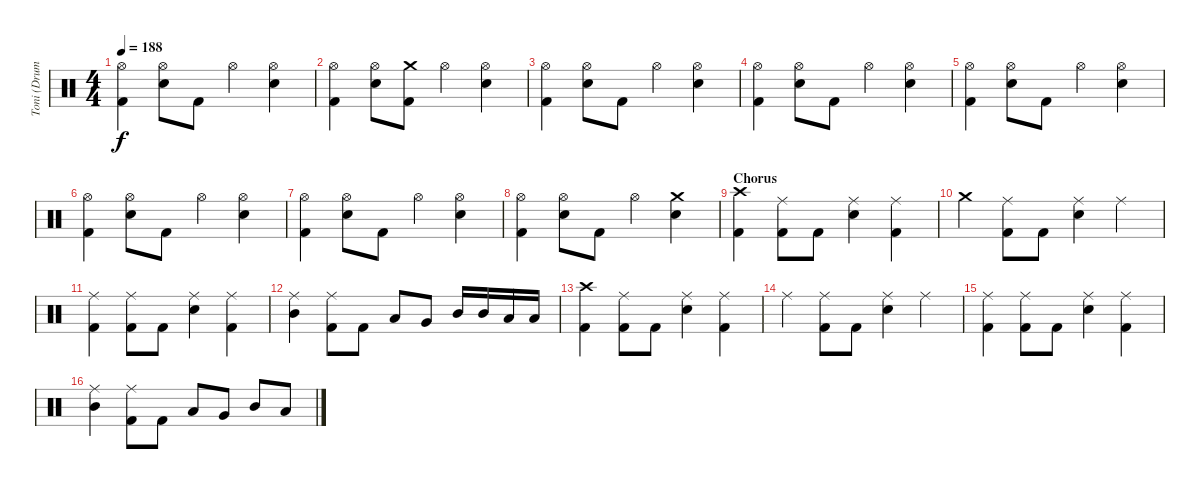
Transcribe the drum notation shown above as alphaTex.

\track ("Toni (Drums)" "Toni (Drum") {instrument percussion}
\staff {score}
\articulation defaults
\ts (4 4)
\tempo 188
\clef neutral
\ks c
("Hi-Hat (open)" "Kick (hit) 2").4{dy f} ("Hi-Hat (open)" "Electric Snare (hit)").8 "Kick (hit) 2".8 "Hi-Hat (open)".4 ("Hi-Hat (open)" "Electric Snare (hit)").4 |
("Hi-Hat (open)" "Kick (hit) 2").4 ("Hi-Hat (open)" "Electric Snare (hit)").8 ("Crash medium (hit)" "Kick (hit) 2").8 "Hi-Hat (open)".4 ("Hi-Hat (open)" "Electric Snare (hit)").4 |
("Hi-Hat (open)" "Kick (hit) 2").4 ("Hi-Hat (open)" "Electric Snare (hit)").8 "Kick (hit) 2".8 "Hi-Hat (open)".4 ("Hi-Hat (open)" "Electric Snare (hit)").4 |
("Hi-Hat (open)" "Kick (hit) 2").4 ("Hi-Hat (open)" "Electric Snare (hit)").8 "Kick (hit) 2".8 "Hi-Hat (open)".4 ("Hi-Hat (open)" "Electric Snare (hit)").4 |
("Hi-Hat (open)" "Kick (hit) 2").4 ("Hi-Hat (open)" "Electric Snare (hit)").8 "Kick (hit) 2".8 "Hi-Hat (open)".4 ("Hi-Hat (open)" "Electric Snare (hit)").4 |
("Hi-Hat (open)" "Kick (hit) 2").4 ("Hi-Hat (open)" "Electric Snare (hit)").8 "Kick (hit) 2".8 "Hi-Hat (open)".4 ("Hi-Hat (open)" "Electric Snare (hit)").4 |
("Hi-Hat (open)" "Kick (hit) 2").4 ("Hi-Hat (open)" "Electric Snare (hit)").8 "Kick (hit) 2".8 "Hi-Hat (open)".4 ("Hi-Hat (open)" "Electric Snare (hit)").4 |
("Hi-Hat (open)" "Kick (hit) 2").4 ("Hi-Hat (open)" "Electric Snare (hit)").8 "Kick (hit) 2".8 "Hi-Hat (open)".4 ("Crash medium (hit)" "Electric Snare (hit)").4 |
\section ("" "Chorus")
("Crash high (hit)" "Kick (hit) 2").4 ("Ride (middle)" "Kick (hit) 2").8 "Kick (hit) 2".8 ("Ride (middle)" "Electric Snare (hit)").4 ("Ride (middle)" "Kick (hit) 2").4 |
"Crash medium (hit)".4 ("Ride (middle)" "Kick (hit) 2").8 "Kick (hit) 2".8 ("Ride (middle)" "Electric Snare (hit)").4 "Ride (middle)".4 |
("Ride (middle)" "Kick (hit) 2").4 ("Ride (middle)" "Kick (hit) 2").8 "Kick (hit) 2".8 ("Ride (middle)" "Electric Snare (hit)").4 ("Ride (middle)" "Kick (hit) 2").4 |
("Ride (middle)" "Mid Tom (hit)").4 ("Ride (middle)" "Kick (hit) 2").8 "Kick (hit) 2".8 "Low Tom (hit)".8 "Very Low Tom (hit)".8 "Mid Tom (hit)".16 "Mid Tom (hit)".16 "Low Tom (hit)".16 "Low Tom (hit)".16 |
("Crash high (hit)" "Kick (hit) 2").4 ("Ride (middle)" "Kick (hit) 2").8 "Kick (hit) 2".8 ("Ride (middle)" "Electric Snare (hit)").4 ("Ride (middle)" "Kick (hit) 2").4 |
"Ride (middle)".4 ("Ride (middle)" "Kick (hit) 2").8 "Kick (hit) 2".8 ("Ride (middle)" "Electric Snare (hit)").4 "Ride (middle)".4 |
("Ride (middle)" "Kick (hit) 2").4 ("Ride (middle)" "Kick (hit) 2").8 "Kick (hit) 2".8 ("Ride (middle)" "Electric Snare (hit)").4 ("Ride (middle)" "Kick (hit) 2").4 |
("Ride (middle)" "Mid Tom (hit)").4 ("Ride (middle)" "Kick (hit) 2").8 "Kick (hit) 2".8 "Low Tom (hit)".8 "Very Low Tom (hit)".8 "Mid Tom (hit)".8 "Low Tom (hit)".8
